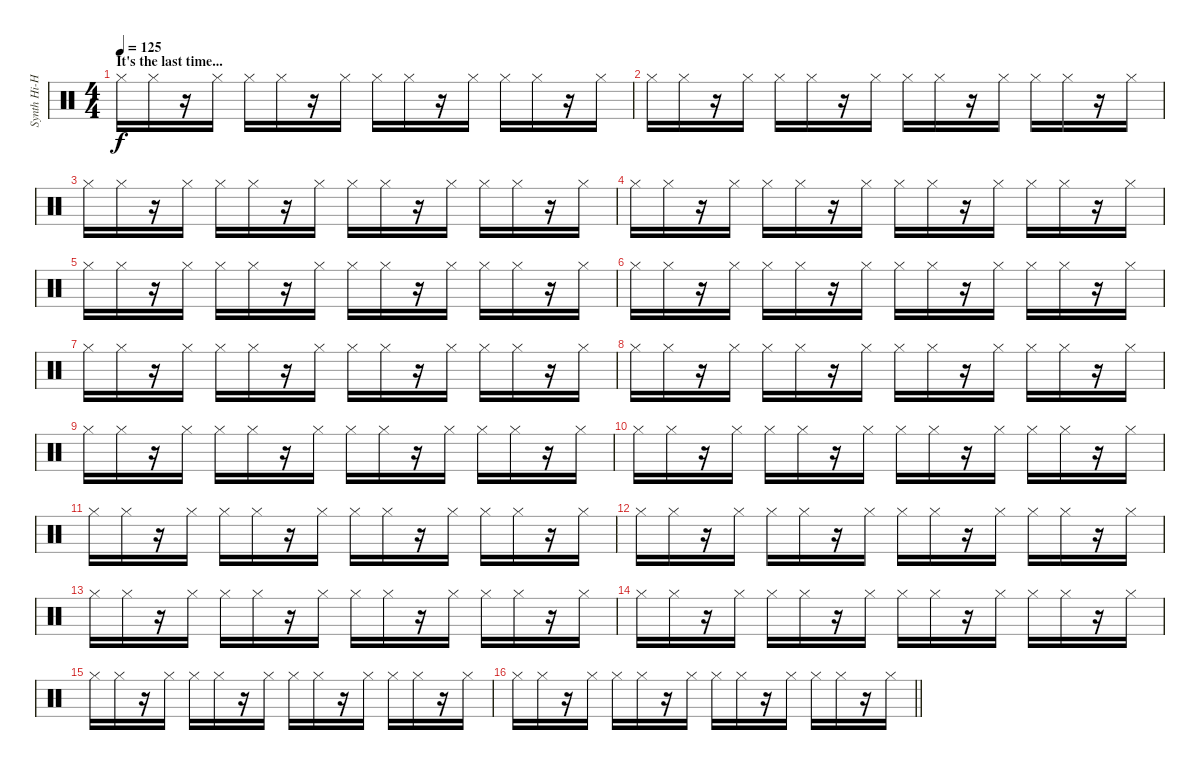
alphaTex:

\track ("Synth Hi-Hat (Gillian)" "Synth Hi-H") {instrument percussion}
\staff {score}
\articulation defaults
\ts (4 4)
\section ("" "It's the last time...")
\tempo 125
\clef neutral
\ks c "Hi-Hat (closed)".16{dy f} "Hi-Hat (closed)".16
r.16 "Hi-Hat (closed)".16 "Hi-Hat (closed)".16 "Hi-Hat (closed)".16 r.16 "Hi-Hat (closed)".16 "Hi-Hat (closed)".16 "Hi-Hat (closed)".16 r.16 "Hi-Hat (closed)".16 "Hi-Hat (closed)".16 "Hi-Hat (closed)".16 r.16 "Hi-Hat (closed)".16 |
"Hi-Hat (closed)".16 "Hi-Hat (closed)".16 r.16 "Hi-Hat (closed)".16 "Hi-Hat (closed)".16 "Hi-Hat (closed)".16 r.16 "Hi-Hat (closed)".16 "Hi-Hat (closed)".16 "Hi-Hat (closed)".16 r.16 "Hi-Hat (closed)".16 "Hi-Hat (closed)".16 "Hi-Hat (closed)".16 r.16 "Hi-Hat (closed)".16 |
"Hi-Hat (closed)".16 "Hi-Hat (closed)".16 r.16 "Hi-Hat (closed)".16 "Hi-Hat (closed)".16 "Hi-Hat (closed)".16 r.16 "Hi-Hat (closed)".16 "Hi-Hat (closed)".16 "Hi-Hat (closed)".16 r.16 "Hi-Hat (closed)".16 "Hi-Hat (closed)".16 "Hi-Hat (closed)".16 r.16 "Hi-Hat (closed)".16 |
"Hi-Hat (closed)".16 "Hi-Hat (closed)".16 r.16 "Hi-Hat (closed)".16 "Hi-Hat (closed)".16 "Hi-Hat (closed)".16 r.16 "Hi-Hat (closed)".16 "Hi-Hat (closed)".16 "Hi-Hat (closed)".16 r.16 "Hi-Hat (closed)".16 "Hi-Hat (closed)".16 "Hi-Hat (closed)".16 r.16 "Hi-Hat (closed)".16 |
"Hi-Hat (closed)".16 "Hi-Hat (closed)".16 r.16 "Hi-Hat (closed)".16 "Hi-Hat (closed)".16 "Hi-Hat (closed)".16 r.16 "Hi-Hat (closed)".16 "Hi-Hat (closed)".16 "Hi-Hat (closed)".16 r.16 "Hi-Hat (closed)".16 "Hi-Hat (closed)".16 "Hi-Hat (closed)".16 r.16 "Hi-Hat (closed)".16 |
"Hi-Hat (closed)".16 "Hi-Hat (closed)".16 r.16 "Hi-Hat (closed)".16 "Hi-Hat (closed)".16 "Hi-Hat (closed)".16 r.16 "Hi-Hat (closed)".16 "Hi-Hat (closed)".16 "Hi-Hat (closed)".16 r.16 "Hi-Hat (closed)".16 "Hi-Hat (closed)".16 "Hi-Hat (closed)".16 r.16 "Hi-Hat (closed)".16 |
"Hi-Hat (closed)".16 "Hi-Hat (closed)".16 r.16 "Hi-Hat (closed)".16 "Hi-Hat (closed)".16 "Hi-Hat (closed)".16 r.16 "Hi-Hat (closed)".16 "Hi-Hat (closed)".16 "Hi-Hat (closed)".16 r.16 "Hi-Hat (closed)".16 "Hi-Hat (closed)".16 "Hi-Hat (closed)".16 r.16 "Hi-Hat (closed)".16 |
"Hi-Hat (closed)".16 "Hi-Hat (closed)".16 r.16 "Hi-Hat (closed)".16 "Hi-Hat (closed)".16 "Hi-Hat (closed)".16 r.16 "Hi-Hat (closed)".16 "Hi-Hat (closed)".16 "Hi-Hat (closed)".16 r.16 "Hi-Hat (closed)".16 "Hi-Hat (closed)".16 "Hi-Hat (closed)".16 r.16 "Hi-Hat (closed)".16 |
"Hi-Hat (closed)".16 "Hi-Hat (closed)".16 r.16 "Hi-Hat (closed)".16 "Hi-Hat (closed)".16 "Hi-Hat (closed)".16 r.16 "Hi-Hat (closed)".16 "Hi-Hat (closed)".16 "Hi-Hat (closed)".16 r.16 "Hi-Hat (closed)".16 "Hi-Hat (closed)".16 "Hi-Hat (closed)".16 r.16 "Hi-Hat (closed)".16 |
"Hi-Hat (closed)".16 "Hi-Hat (closed)".16 r.16 "Hi-Hat (closed)".16 "Hi-Hat (closed)".16 "Hi-Hat (closed)".16 r.16 "Hi-Hat (closed)".16 "Hi-Hat (closed)".16 "Hi-Hat (closed)".16 r.16 "Hi-Hat (closed)".16 "Hi-Hat (closed)".16 "Hi-Hat (closed)".16 r.16 "Hi-Hat (closed)".16 |
"Hi-Hat (closed)".16 "Hi-Hat (closed)".16 r.16 "Hi-Hat (closed)".16 "Hi-Hat (closed)".16 "Hi-Hat (closed)".16 r.16 "Hi-Hat (closed)".16 "Hi-Hat (closed)".16 "Hi-Hat (closed)".16 r.16 "Hi-Hat (closed)".16 "Hi-Hat (closed)".16 "Hi-Hat (closed)".16 r.16 "Hi-Hat (closed)".16 |
"Hi-Hat (closed)".16 "Hi-Hat (closed)".16 r.16 "Hi-Hat (closed)".16 "Hi-Hat (closed)".16 "Hi-Hat (closed)".16 r.16 "Hi-Hat (closed)".16 "Hi-Hat (closed)".16 "Hi-Hat (closed)".16 r.16 "Hi-Hat (closed)".16 "Hi-Hat (closed)".16 "Hi-Hat (closed)".16 r.16 "Hi-Hat (closed)".16 |
"Hi-Hat (closed)".16 "Hi-Hat (closed)".16 r.16 "Hi-Hat (closed)".16 "Hi-Hat (closed)".16 "Hi-Hat (closed)".16 r.16 "Hi-Hat (closed)".16 "Hi-Hat (closed)".16 "Hi-Hat (closed)".16 r.16 "Hi-Hat (closed)".16 "Hi-Hat (closed)".16 "Hi-Hat (closed)".16 r.16 "Hi-Hat (closed)".16 |
"Hi-Hat (closed)".16 "Hi-Hat (closed)".16 r.16 "Hi-Hat (closed)".16 "Hi-Hat (closed)".16 "Hi-Hat (closed)".16 r.16 "Hi-Hat (closed)".16 "Hi-Hat (closed)".16 "Hi-Hat (closed)".16 r.16 "Hi-Hat (closed)".16 "Hi-Hat (closed)".16 "Hi-Hat (closed)".16 r.16 "Hi-Hat (closed)".16 |
"Hi-Hat (closed)".16 "Hi-Hat (closed)".16 r.16 "Hi-Hat (closed)".16 "Hi-Hat (closed)".16 "Hi-Hat (closed)".16 r.16 "Hi-Hat (closed)".16 "Hi-Hat (closed)".16 "Hi-Hat (closed)".16 r.16 "Hi-Hat (closed)".16 "Hi-Hat (closed)".16 "Hi-Hat (closed)".16 r.16 "Hi-Hat (closed)".16 |
\barLineRight lightlight "Hi-Hat (closed)".16 "Hi-Hat (closed)".16
r.16 "Hi-Hat (closed)".16 "Hi-Hat (closed)".16 "Hi-Hat (closed)".16 r.16 "Hi-Hat (closed)".16 "Hi-Hat (closed)".16 "Hi-Hat (closed)".16 r.16 "Hi-Hat (closed)".16 "Hi-Hat (closed)".16 "Hi-Hat (closed)".16 r.16 "Hi-Hat (closed)".16
